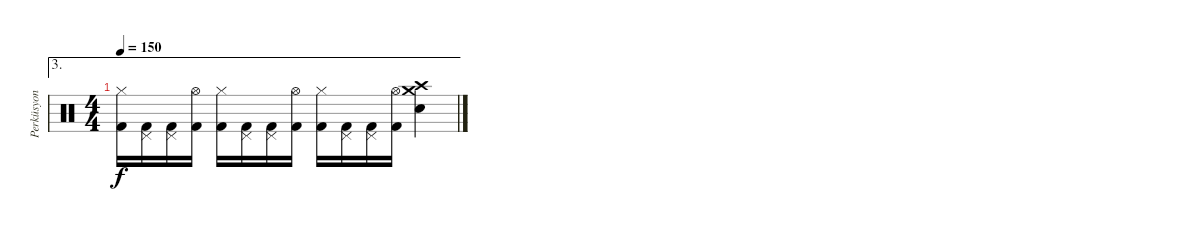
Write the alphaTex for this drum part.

\track ("Perküsyon" "Perküsyon") {instrument percussion}
\staff {score}
\articulation defaults
\ae 3
\ts (4 4)
\tempo 150
\clef neutral
\ks c
("Hi-Hat (closed)" "Kick (hit) 2").16{dy f} ("Pedal Hi-Hat (hit)" "Kick (hit) 2").16 ("Pedal Hi-Hat (hit)" "Kick (hit) 2").16 ("Hi-Hat (open)" "Kick (hit) 2").16 ("Hi-Hat (closed)" "Kick (hit) 2").16 ("Pedal Hi-Hat (hit)" "Kick (hit) 2").16 ("Pedal Hi-Hat (hit)" "Kick (hit) 2").16 ("Hi-Hat (open)" "Kick (hit) 2").16 ("Hi-Hat (closed)" "Kick (hit) 2").16 ("Pedal Hi-Hat (hit)" "Kick (hit) 2").16 ("Pedal Hi-Hat (hit)" "Kick (hit) 2").16 ("Hi-Hat (open)" "Kick (hit) 2").16 ("Crash medium (hit)" "Crash high (hit)" "Electric Snare (hit)").4
